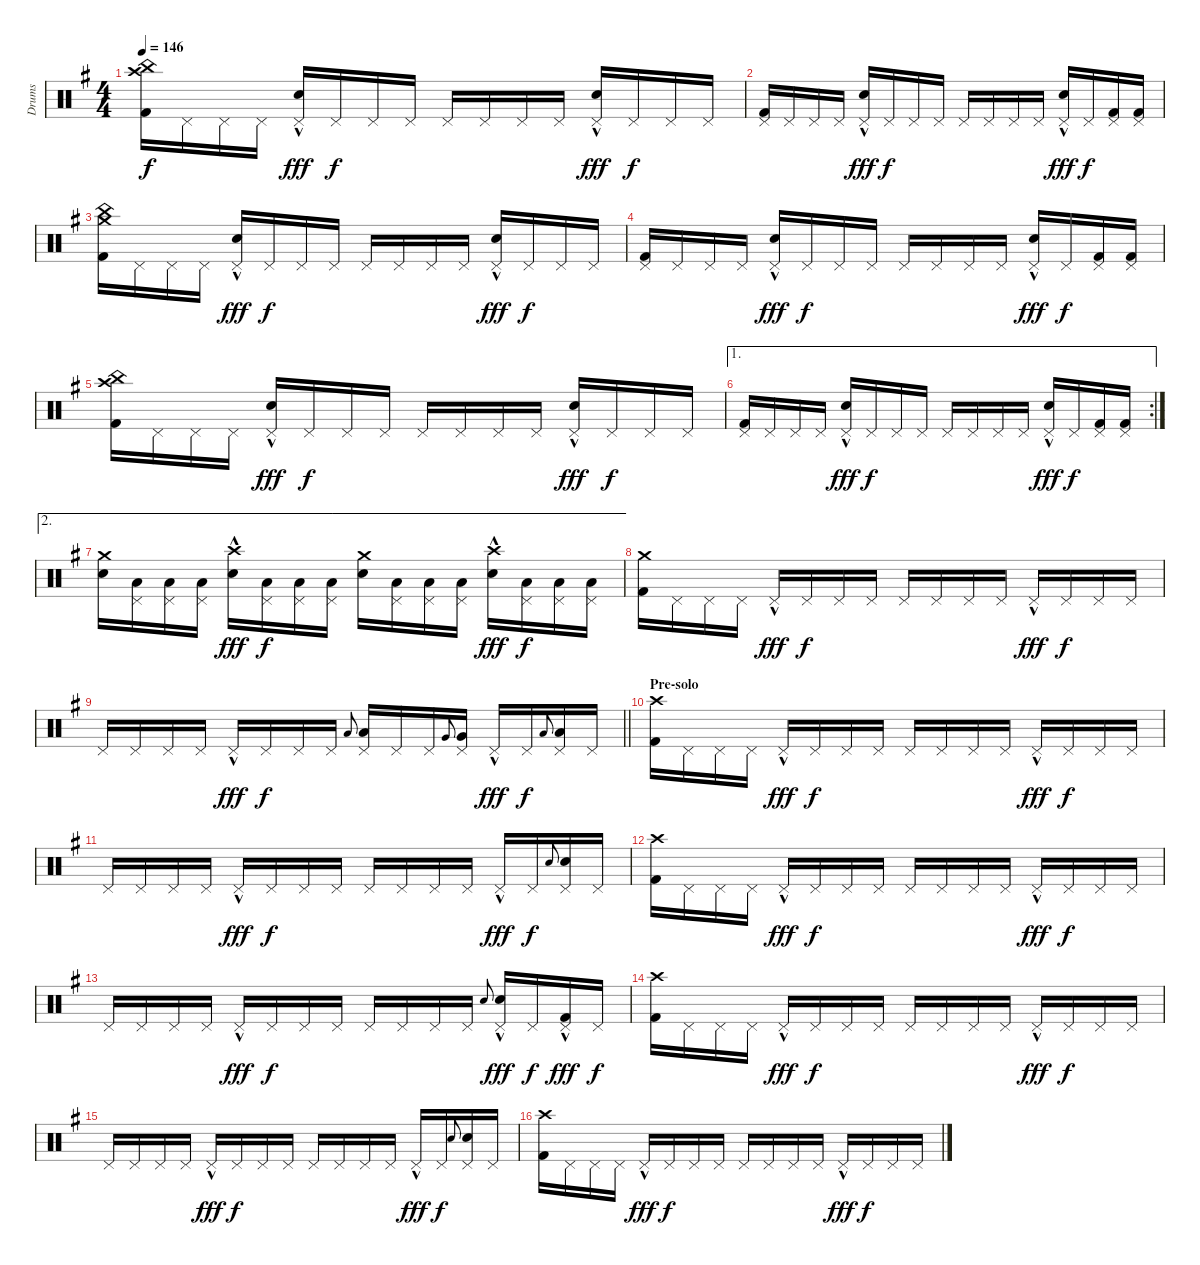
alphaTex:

\track ("Drums" "Drums") {instrument percussion}
\staff {score}
\articulation defaults
\ts (4 4)
\tempo 146
\clef neutral
\ks eminor
("Crash high (hit)" "China (hit)" "Kick (hit) 2").16{dy f} "Pedal Hi-Hat (hit)".16 "Pedal Hi-Hat (hit)".16 "Pedal Hi-Hat (hit)".16 ("Pedal Hi-Hat (hit)"{hac} "Snare (hit) 2").16{dy fff} "Pedal Hi-Hat (hit)".16{dy f} "Pedal Hi-Hat (hit)".16 "Pedal Hi-Hat (hit)".16 "Pedal Hi-Hat (hit)".16 "Pedal Hi-Hat (hit)".16 "Pedal Hi-Hat (hit)".16 "Pedal Hi-Hat (hit)".16 ("Pedal Hi-Hat (hit)"{hac} "Snare (hit) 2").16{dy fff} "Pedal Hi-Hat (hit)".16{dy f} "Pedal Hi-Hat (hit)".16 "Pedal Hi-Hat (hit)".16 |
("Pedal Hi-Hat (hit)" "Kick (hit) 2").16 "Pedal Hi-Hat (hit)".16 "Pedal Hi-Hat (hit)".16 "Pedal Hi-Hat (hit)".16 ("Pedal Hi-Hat (hit)"{hac} "Snare (hit) 2").16{dy fff} "Pedal Hi-Hat (hit)".16{dy f} "Pedal Hi-Hat (hit)".16 "Pedal Hi-Hat (hit)".16 "Pedal Hi-Hat (hit)".16 "Pedal Hi-Hat (hit)".16 "Pedal Hi-Hat (hit)".16 "Pedal Hi-Hat (hit)".16 ("Pedal Hi-Hat (hit)"{hac} "Snare (hit) 2").16{dy fff} "Pedal Hi-Hat (hit)".16{dy f} ("Pedal Hi-Hat (hit)" "Kick (hit) 2").16 ("Pedal Hi-Hat (hit)" "Kick (hit) 2").16 |
("Crash medium (hit)" "China (hit)" "Kick (hit) 2").16 "Pedal Hi-Hat (hit)".16 "Pedal Hi-Hat (hit)".16 "Pedal Hi-Hat (hit)".16 ("Pedal Hi-Hat (hit)"{hac} "Snare (hit) 2").16{dy fff} "Pedal Hi-Hat (hit)".16{dy f} "Pedal Hi-Hat (hit)".16 "Pedal Hi-Hat (hit)".16 "Pedal Hi-Hat (hit)".16 "Pedal Hi-Hat (hit)".16 "Pedal Hi-Hat (hit)".16 "Pedal Hi-Hat (hit)".16 ("Pedal Hi-Hat (hit)"{hac} "Snare (hit) 2").16{dy fff} "Pedal Hi-Hat (hit)".16{dy f} "Pedal Hi-Hat (hit)".16 "Pedal Hi-Hat (hit)".16 |
("Pedal Hi-Hat (hit)" "Kick (hit) 2").16 "Pedal Hi-Hat (hit)".16 "Pedal Hi-Hat (hit)".16 "Pedal Hi-Hat (hit)".16 ("Pedal Hi-Hat (hit)"{hac} "Snare (hit) 2").16{dy fff} "Pedal Hi-Hat (hit)".16{dy f} "Pedal Hi-Hat (hit)".16 "Pedal Hi-Hat (hit)".16 "Pedal Hi-Hat (hit)".16 "Pedal Hi-Hat (hit)".16 "Pedal Hi-Hat (hit)".16 "Pedal Hi-Hat (hit)".16 ("Pedal Hi-Hat (hit)"{hac} "Snare (hit) 2").16{dy fff} "Pedal Hi-Hat (hit)".16{dy f} ("Pedal Hi-Hat (hit)" "Kick (hit) 2").16 ("Pedal Hi-Hat (hit)" "Kick (hit) 2").16 |
("Crash high (hit)" "China (hit)" "Kick (hit) 2").16 "Pedal Hi-Hat (hit)".16 "Pedal Hi-Hat (hit)".16 "Pedal Hi-Hat (hit)".16 ("Pedal Hi-Hat (hit)"{hac} "Snare (hit) 2").16{dy fff} "Pedal Hi-Hat (hit)".16{dy f} "Pedal Hi-Hat (hit)".16 "Pedal Hi-Hat (hit)".16 "Pedal Hi-Hat (hit)".16 "Pedal Hi-Hat (hit)".16 "Pedal Hi-Hat (hit)".16 "Pedal Hi-Hat (hit)".16 ("Pedal Hi-Hat (hit)"{hac} "Snare (hit) 2").16{dy fff} "Pedal Hi-Hat (hit)".16{dy f} "Pedal Hi-Hat (hit)".16 "Pedal Hi-Hat (hit)".16 |
\ae 1
\rc 2
("Pedal Hi-Hat (hit)" "Kick (hit) 2").16 "Pedal Hi-Hat (hit)".16 "Pedal Hi-Hat (hit)".16 "Pedal Hi-Hat (hit)".16 ("Pedal Hi-Hat (hit)"{hac} "Snare (hit) 2").16{dy fff} "Pedal Hi-Hat (hit)".16{dy f} "Pedal Hi-Hat (hit)".16 "Pedal Hi-Hat (hit)".16 "Pedal Hi-Hat (hit)".16 "Pedal Hi-Hat (hit)".16 "Pedal Hi-Hat (hit)".16 "Pedal Hi-Hat (hit)".16 ("Pedal Hi-Hat (hit)"{hac} "Snare (hit) 2").16{dy fff} "Pedal Hi-Hat (hit)".16{dy f} ("Pedal Hi-Hat (hit)" "Kick (hit) 2").16 ("Pedal Hi-Hat (hit)" "Kick (hit) 2").16 |
\ae 2
("Crash medium (hit)" "Snare (hit) 2").16 ("Pedal Hi-Hat (hit)" "Low Floor Tom (hit)").16 ("Pedal Hi-Hat (hit)" "Low Floor Tom (hit)").16 ("Pedal Hi-Hat (hit)" "Low Floor Tom (hit)").16 ("Crash high (hit)"{hac} "Snare (hit) 2").16{dy fff} ("Pedal Hi-Hat (hit)" "Low Floor Tom (hit)").16{dy f} ("Pedal Hi-Hat (hit)" "Low Floor Tom (hit)").16 ("Pedal Hi-Hat (hit)" "Low Floor Tom (hit)").16 ("Crash medium (hit)" "Snare (hit) 2").16 ("Pedal Hi-Hat (hit)" "Low Floor Tom (hit)").16 ("Pedal Hi-Hat (hit)" "Low Floor Tom (hit)").16 ("Pedal Hi-Hat (hit)" "Low Floor Tom (hit)").16 ("Crash high (hit)"{hac} "Snare (hit) 2").16{dy fff} ("Pedal Hi-Hat (hit)" "Low Floor Tom (hit)").16{dy f} ("Pedal Hi-Hat (hit)" "Low Floor Tom (hit)").16 ("Pedal Hi-Hat (hit)" "Low Floor Tom (hit)").16 |
("Crash medium (hit)" "Kick (hit) 2").16 "Pedal Hi-Hat (hit)".16 "Pedal Hi-Hat (hit)".16 "Pedal Hi-Hat (hit)".16 "Pedal Hi-Hat (hit)"{hac}.16{dy fff} "Pedal Hi-Hat (hit)".16{dy f} "Pedal Hi-Hat (hit)".16 "Pedal Hi-Hat (hit)".16 "Pedal Hi-Hat (hit)".16 "Pedal Hi-Hat (hit)".16 "Pedal Hi-Hat (hit)".16 "Pedal Hi-Hat (hit)".16 "Pedal Hi-Hat (hit)"{hac}.16{dy fff} "Pedal Hi-Hat (hit)".16{dy f} "Pedal Hi-Hat (hit)".16 "Pedal Hi-Hat (hit)".16 |
\barLineRight lightlight "Pedal Hi-Hat (hit)".16 "Pedal Hi-Hat (hit)".16 "Pedal Hi-Hat (hit)".16 "Pedal Hi-Hat (hit)".16 "Pedal Hi-Hat (hit)"{hac}.16{dy fff} "Pedal Hi-Hat (hit)".16{dy f} "Pedal Hi-Hat (hit)".16 "Pedal Hi-Hat (hit)".16 "Low Tom (hit)".8{gr onbeat}
("Pedal Hi-Hat (hit)" "Low Tom (hit)").16 "Pedal Hi-Hat (hit)".16 "Pedal Hi-Hat (hit)".16 "Very Low Tom (hit)".8{gr onbeat} ("Pedal Hi-Hat (hit)" "Very Low Tom (hit)").16 "Pedal Hi-Hat (hit)"{hac}.16{dy fff} "Pedal Hi-Hat (hit)".16{dy f} "Low Floor Tom (hit)".8{gr onbeat} ("Pedal Hi-Hat (hit)" "Low Floor Tom (hit)").16 "Pedal Hi-Hat (hit)".16 |
\section ("" "Pre-solo")
("Crash high (hit)" "Kick (hit) 2").16 "Pedal Hi-Hat (hit)".16 "Pedal Hi-Hat (hit)".16 "Pedal Hi-Hat (hit)".16 "Pedal Hi-Hat (hit)"{hac}.16{dy fff} "Pedal Hi-Hat (hit)".16{dy f} "Pedal Hi-Hat (hit)".16 "Pedal Hi-Hat (hit)".16 "Pedal Hi-Hat (hit)".16 "Pedal Hi-Hat (hit)".16 "Pedal Hi-Hat (hit)".16 "Pedal Hi-Hat (hit)".16 "Pedal Hi-Hat (hit)"{hac}.16{dy fff} "Pedal Hi-Hat (hit)".16{dy f} "Pedal Hi-Hat (hit)".16 "Pedal Hi-Hat (hit)".16 |
"Pedal Hi-Hat (hit)".16 "Pedal Hi-Hat (hit)".16 "Pedal Hi-Hat (hit)".16 "Pedal Hi-Hat (hit)".16 "Pedal Hi-Hat (hit)"{hac}.16{dy fff} "Pedal Hi-Hat (hit)".16{dy f} "Pedal Hi-Hat (hit)".16 "Pedal Hi-Hat (hit)".16 "Pedal Hi-Hat (hit)".16 "Pedal Hi-Hat (hit)".16 "Pedal Hi-Hat (hit)".16 "Pedal Hi-Hat (hit)".16 "Pedal Hi-Hat (hit)"{hac}.16{dy fff} "Pedal Hi-Hat (hit)".16{dy f} "Snare (hit) 2".8{gr onbeat} ("Pedal Hi-Hat (hit)" "Snare (hit) 2").16 "Pedal Hi-Hat (hit)".16 |
("Crash high (hit)" "Kick (hit) 2").16 "Pedal Hi-Hat (hit)".16 "Pedal Hi-Hat (hit)".16 "Pedal Hi-Hat (hit)".16 "Pedal Hi-Hat (hit)"{hac}.16{dy fff} "Pedal Hi-Hat (hit)".16{dy f} "Pedal Hi-Hat (hit)".16 "Pedal Hi-Hat (hit)".16 "Pedal Hi-Hat (hit)".16 "Pedal Hi-Hat (hit)".16 "Pedal Hi-Hat (hit)".16 "Pedal Hi-Hat (hit)".16 "Pedal Hi-Hat (hit)"{hac}.16{dy fff} "Pedal Hi-Hat (hit)".16{dy f} "Pedal Hi-Hat (hit)".16 "Pedal Hi-Hat (hit)".16 |
"Pedal Hi-Hat (hit)".16 "Pedal Hi-Hat (hit)".16 "Pedal Hi-Hat (hit)".16 "Pedal Hi-Hat (hit)".16 "Pedal Hi-Hat (hit)"{hac}.16{dy fff} "Pedal Hi-Hat (hit)".16{dy f} "Pedal Hi-Hat (hit)".16 "Pedal Hi-Hat (hit)".16 "Pedal Hi-Hat (hit)".16 "Pedal Hi-Hat (hit)".16 "Pedal Hi-Hat (hit)".16 "Pedal Hi-Hat (hit)".16 "Snare (hit) 2".8{gr onbeat} ("Pedal Hi-Hat (hit)"{hac} "Snare (hit) 2").16{dy fff} "Pedal Hi-Hat (hit)".16{dy f} ("Pedal Hi-Hat (hit)" "Kick (hit) 2"{hac}).16{dy fff} "Pedal Hi-Hat (hit)".16{dy f} |
("Crash high (hit)" "Kick (hit) 2").16 "Pedal Hi-Hat (hit)".16 "Pedal Hi-Hat (hit)".16 "Pedal Hi-Hat (hit)".16 "Pedal Hi-Hat (hit)"{hac}.16{dy fff} "Pedal Hi-Hat (hit)".16{dy f} "Pedal Hi-Hat (hit)".16 "Pedal Hi-Hat (hit)".16 "Pedal Hi-Hat (hit)".16 "Pedal Hi-Hat (hit)".16 "Pedal Hi-Hat (hit)".16 "Pedal Hi-Hat (hit)".16 "Pedal Hi-Hat (hit)"{hac}.16{dy fff} "Pedal Hi-Hat (hit)".16{dy f} "Pedal Hi-Hat (hit)".16 "Pedal Hi-Hat (hit)".16 |
"Pedal Hi-Hat (hit)".16 "Pedal Hi-Hat (hit)".16 "Pedal Hi-Hat (hit)".16 "Pedal Hi-Hat (hit)".16 "Pedal Hi-Hat (hit)"{hac}.16{dy fff} "Pedal Hi-Hat (hit)".16{dy f} "Pedal Hi-Hat (hit)".16 "Pedal Hi-Hat (hit)".16 "Pedal Hi-Hat (hit)".16 "Pedal Hi-Hat (hit)".16 "Pedal Hi-Hat (hit)".16 "Pedal Hi-Hat (hit)".16 "Pedal Hi-Hat (hit)"{hac}.16{dy fff} "Pedal Hi-Hat (hit)".16{dy f} "Snare (hit) 2".8{gr onbeat} ("Pedal Hi-Hat (hit)" "Snare (hit) 2").16 "Pedal Hi-Hat (hit)".16 |
("Crash high (hit)" "Kick (hit) 2").16 "Pedal Hi-Hat (hit)".16 "Pedal Hi-Hat (hit)".16 "Pedal Hi-Hat (hit)".16 "Pedal Hi-Hat (hit)"{hac}.16{dy fff} "Pedal Hi-Hat (hit)".16{dy f} "Pedal Hi-Hat (hit)".16 "Pedal Hi-Hat (hit)".16 "Pedal Hi-Hat (hit)".16 "Pedal Hi-Hat (hit)".16 "Pedal Hi-Hat (hit)".16 "Pedal Hi-Hat (hit)".16 "Pedal Hi-Hat (hit)"{hac}.16{dy fff} "Pedal Hi-Hat (hit)".16{dy f} "Pedal Hi-Hat (hit)".16 "Pedal Hi-Hat (hit)".16
